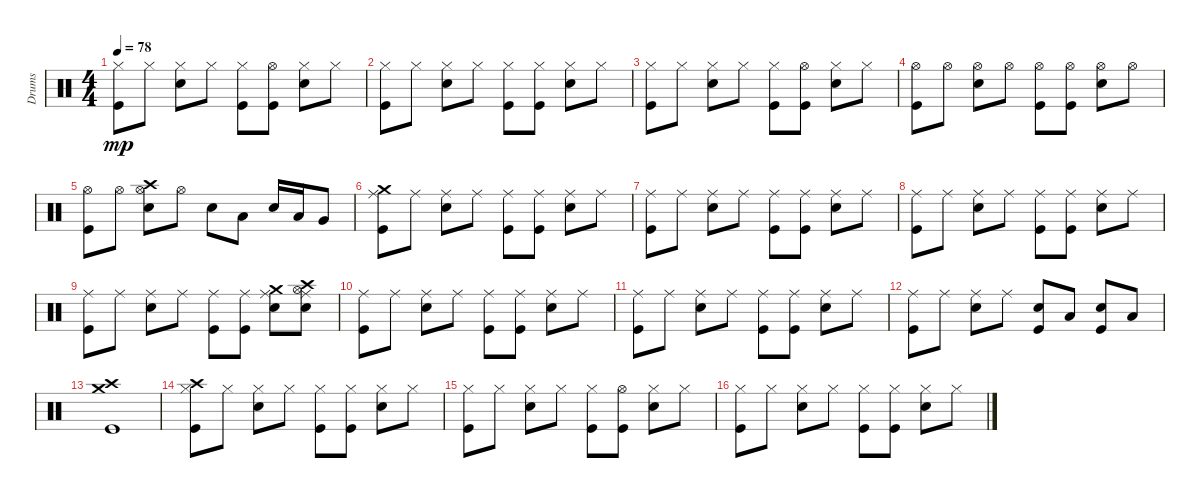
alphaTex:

\track ("Drums" "Drums") {instrument percussion}
\staff {score}
\articulation defaults
\ts (4 4)
\tempo 78
\clef neutral
\ks c
("Kick (hit)" "Hi-Hat (closed)").8{dy mp balance 8} "Hi-Hat (closed)".8 ("Snare (hit) 2" "Hi-Hat (closed)").8 "Hi-Hat (closed)".8 ("Kick (hit)" "Hi-Hat (closed)").8{balance 8} ("Kick (hit)" "Hi-Hat (open)").8{balance 7} ("Snare (hit) 2" "Hi-Hat (closed)").8{balance 8} "Hi-Hat (closed)".8 |
("Kick (hit)" "Hi-Hat (closed)").8{balance 8} "Hi-Hat (closed)".8 ("Snare (hit) 2" "Hi-Hat (closed)").8 "Hi-Hat (closed)".8 ("Kick (hit)" "Hi-Hat (closed)").8{balance 8} ("Kick (hit)" "Hi-Hat (closed)").8{balance 8} ("Snare (hit) 2" "Hi-Hat (closed)").8 "Hi-Hat (closed)".8 |
("Kick (hit)" "Hi-Hat (closed)").8{balance 8} "Hi-Hat (closed)".8 ("Snare (hit) 2" "Hi-Hat (closed)").8 "Hi-Hat (closed)".8 ("Kick (hit)" "Hi-Hat (closed)").8{balance 8} ("Kick (hit)" "Hi-Hat (open)").8{balance 7} ("Snare (hit) 2" "Hi-Hat (closed)").8{balance 8} "Hi-Hat (closed)".8 |
("Kick (hit)" "Hi-Hat (open)").8{balance 7} "Hi-Hat (open)".8 ("Snare (hit) 2" "Hi-Hat (open)").8{balance 7} "Hi-Hat (open)".8 ("Kick (hit)" "Hi-Hat (open)").8{balance 7} ("Kick (hit)" "Hi-Hat (open)").8{balance 7} ("Snare (hit) 2" "Hi-Hat (open)").8{balance 7} "Hi-Hat (open)".8 |
("Kick (hit)" "Hi-Hat (open)").8{balance 7} "Hi-Hat (open)".8 ("Snare (hit) 2" "Hi-Hat (open)" "Crash high (hit)").8{volume 12 balance 8} "Hi-Hat (open)".8{volume 16 balance 7} "Snare (hit) 2".8{balance 8} "Low Tom (hit)".8 "Snare (hit) 2".16 "Low Tom (hit)".16 "Very Low Tom (hit)".8 |
("Kick (hit)" "Crash medium (hit)" "Ride (middle)").8{volume 16 balance 7} "Ride (middle)".8 ("Snare (hit) 2" "Ride (middle)").8{balance 7} "Ride (middle)".8 ("Kick (hit)" "Ride (middle)").8{balance 7} ("Kick (hit)" "Ride (middle)").8{balance 7} ("Snare (hit) 2" "Ride (middle)").8{balance 7} "Ride (middle)".8 |
("Kick (hit)" "Ride (middle)").8{balance 7} "Ride (middle)".8 ("Snare (hit) 2" "Ride (middle)").8{balance 7} "Ride (middle)".8 ("Kick (hit)" "Ride (middle)").8{balance 7} ("Kick (hit)" "Ride (middle)").8{balance 7} ("Snare (hit) 2" "Ride (middle)").8{balance 7} "Ride (middle)".8 |
("Kick (hit)" "Ride (middle)").8{balance 7} "Ride (middle)".8 ("Snare (hit) 2" "Ride (middle)").8{balance 7} "Ride (middle)".8 ("Kick (hit)" "Ride (middle)").8{balance 7} ("Kick (hit)" "Ride (middle)").8{balance 7} ("Snare (hit) 2" "Ride (middle)").8{balance 7} "Ride (middle)".8 |
("Kick (hit)" "Ride (middle)").8{balance 7} "Ride (middle)".8 ("Snare (hit) 2" "Ride (middle)").8{balance 7} "Ride (middle)".8 ("Kick (hit)" "Ride (middle)").8{balance 7} ("Kick (hit)" "Ride (middle)").8{balance 7} ("Snare (hit) 2" "Crash medium (hit)" "Ride (middle)").8{volume 16 balance 7} ("Snare (hit) 2" "Hi-Hat (open)" "Crash high (hit)" "Ride (middle)").8{volume 16 balance 7} |
("Kick (hit)" "Ride (middle)").8{balance 7} "Ride (middle)".8 ("Snare (hit) 2" "Ride (middle)").8{balance 7} "Ride (middle)".8 ("Kick (hit)" "Ride (middle)").8{balance 7} ("Kick (hit)" "Ride (middle)").8{balance 7} ("Snare (hit) 2" "Ride (middle)").8{balance 7} "Ride (middle)".8 |
("Kick (hit)" "Ride (middle)").8{balance 7} "Ride (middle)".8 ("Snare (hit) 2" "Ride (middle)").8{balance 7} "Ride (middle)".8 ("Kick (hit)" "Ride (middle)").8{balance 7} ("Kick (hit)" "Ride (middle)").8{balance 7} ("Snare (hit) 2" "Ride (middle)").8{balance 7} "Ride (middle)".8 |
("Kick (hit)" "Ride (middle)").8{balance 7} "Ride (middle)".8 ("Snare (hit) 2" "Ride (middle)").8{balance 7} "Ride (middle)".8 ("Kick (hit)" "Snare (hit) 2").8{balance 8} "Low Tom (hit)".8 ("Kick (hit)" "Snare (hit) 2").8{balance 8} "Low Tom (hit)".8 |
("Kick (hit)" "Crash high (hit)" "Crash medium (hit)").1{volume 14 balance 8} |
("Kick (hit)" "Hi-Hat (closed)" "Crash high (hit)").8{volume 12 balance 8} "Hi-Hat (closed)".8{volume 16 balance 8} ("Snare (hit) 2" "Hi-Hat (closed)").8 "Hi-Hat (closed)".8 ("Kick (hit)" "Hi-Hat (closed)").8{balance 8} ("Kick (hit)" "Hi-Hat (closed)").8{balance 8} ("Snare (hit) 2" "Hi-Hat (closed)").8 "Hi-Hat (closed)".8 |
("Kick (hit)" "Hi-Hat (closed)").8{balance 8} "Hi-Hat (closed)".8 ("Snare (hit) 2" "Hi-Hat (closed)").8 "Hi-Hat (closed)".8 ("Kick (hit)" "Hi-Hat (closed)").8{balance 8} ("Kick (hit)" "Hi-Hat (open)").8{balance 7} ("Snare (hit) 2" "Hi-Hat (closed)").8{balance 8} "Hi-Hat (closed)".8 |
("Kick (hit)" "Hi-Hat (closed)").8{balance 8} "Hi-Hat (closed)".8 ("Snare (hit) 2" "Hi-Hat (closed)").8 "Hi-Hat (closed)".8 ("Kick (hit)" "Hi-Hat (closed)").8{balance 8} ("Kick (hit)" "Hi-Hat (closed)").8{balance 8} ("Snare (hit) 2" "Hi-Hat (closed)").8 "Hi-Hat (closed)".8
